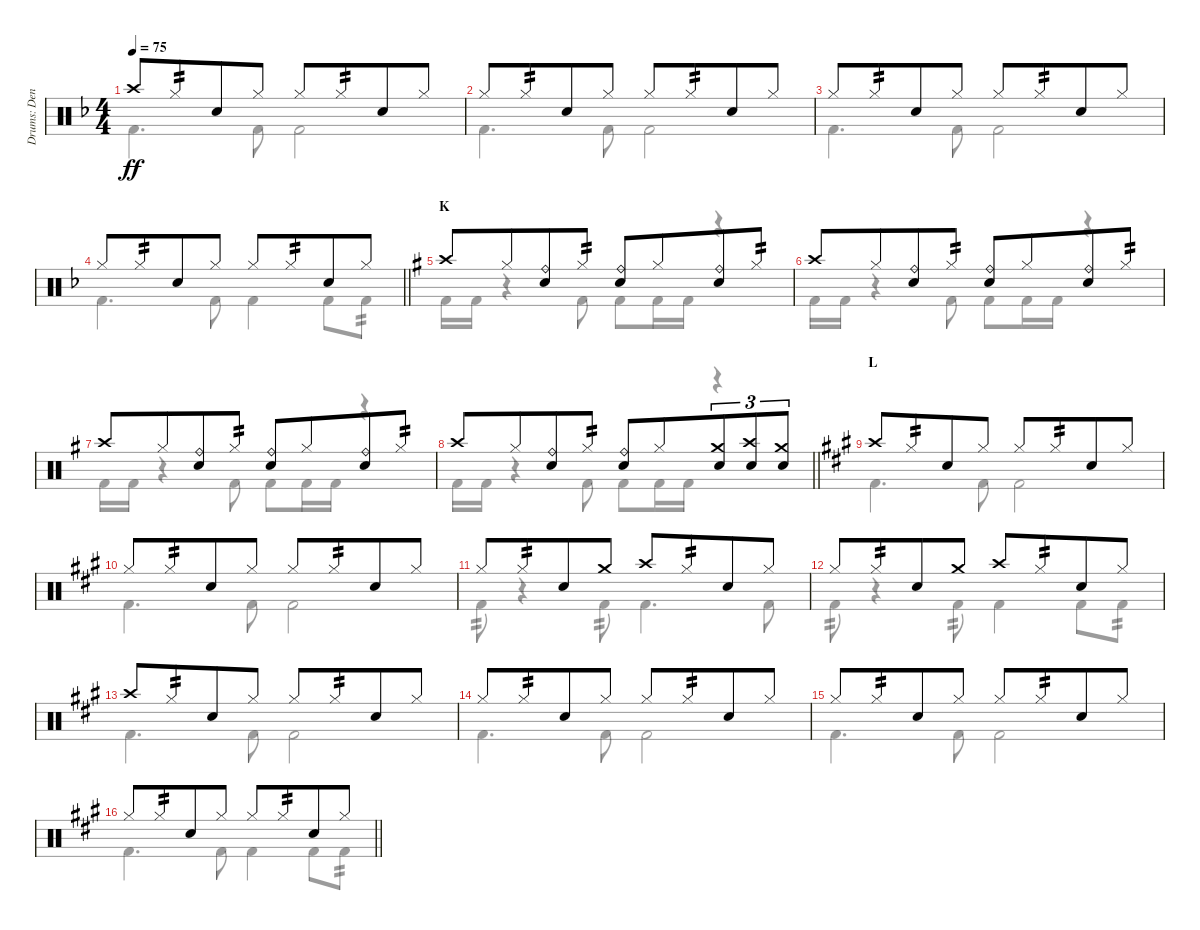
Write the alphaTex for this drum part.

\track ("Drums: Denny" "Drums: Den") {instrument percussion}
\staff {score}
\articulation defaults
\voice
\ts (4 4)
\tempo 75
\clef neutral
\ks f "Crash high (hit)".8{dy ff} "Hi-Hat (closed)".8{tp 2 beam merge} "Snare (hit) 2".8 "Hi-Hat (closed)".8 "Hi-Hat (closed)".8 "Hi-Hat (closed)".8{tp 2 beam merge} "Snare (hit) 2".8 "Hi-Hat (closed)".8
|
"Hi-Hat (closed)".8 "Hi-Hat (closed)".8{tp 2 beam merge} "Snare (hit) 2".8 "Hi-Hat (closed)".8 "Hi-Hat (closed)".8 "Hi-Hat (closed)".8{tp 2 beam merge} "Snare (hit) 2".8 "Hi-Hat (closed)".8 |
"Hi-Hat (closed)".8 "Hi-Hat (closed)".8{tp 2 beam merge} "Snare (hit) 2".8 "Hi-Hat (closed)".8 "Hi-Hat (closed)".8 "Hi-Hat (closed)".8{tp 2 beam merge} "Snare (hit) 2".8 "Hi-Hat (closed)".8 |
\barLineRight lightlight "Hi-Hat (closed)".8 "Hi-Hat (closed)".8{tp 2 beam merge} "Snare (hit) 2".8 "Hi-Hat (closed)".8 "Hi-Hat (closed)".8 "Hi-Hat (closed)".8{tp 2 beam merge} "Snare (hit) 2".8 "Hi-Hat (closed)".8
|
\section ("" "K")
\ks g "Crash high (hit)".8 "Hi-Hat (closed)".8{beam merge}
("Ride (bell)" "Snare (hit) 2").8 "Hi-Hat (closed)".8{tp 2} ("Ride (bell)" "Snare (hit) 2").8 "Hi-Hat (closed)".8{beam merge} ("Ride (bell)" "Snare (hit) 2").8 "Hi-Hat (closed)".8{tp 2} |
"Crash high (hit)".8 "Hi-Hat (closed)".8{beam merge} ("Ride (bell)" "Snare (hit) 2").8 "Hi-Hat (closed)".8{tp 2} ("Ride (bell)" "Snare (hit) 2").8 "Hi-Hat (closed)".8{beam merge} ("Ride (bell)" "Snare (hit) 2").8 "Hi-Hat (closed)".8{tp 2} |
"Crash high (hit)".8 "Hi-Hat (closed)".8{beam merge} ("Ride (bell)" "Snare (hit) 2").8 "Hi-Hat (closed)".8{tp 2} ("Ride (bell)" "Snare (hit) 2").8 "Hi-Hat (closed)".8{beam merge} ("Ride (bell)" "Snare (hit) 2").8 "Hi-Hat (closed)".8{tp 2} |
\barLineRight lightlight "Crash high (hit)".8 "Hi-Hat (closed)".8{beam merge}
("Ride (bell)" "Snare (hit) 2").8 "Hi-Hat (closed)".8{tp 2} ("Ride (bell)" "Snare (hit) 2").8 "Hi-Hat (closed)".8{beam merge} ("Crash medium (hit)" "Snare (hit) 2").8{tu (3 2)} ("Crash high (hit)" "Snare (hit) 2").8{tu (3 2)} ("Crash medium (hit)" "Snare (hit) 2").8{tu (3 2)} |
\section ("" "L")
\ks a "Crash high (hit)".8 "Hi-Hat (closed)".8{tp 2 beam merge} "Snare (hit) 2".8 "Hi-Hat (closed)".8 "Hi-Hat (closed)".8 "Hi-Hat (closed)".8{tp 2 beam merge} "Snare (hit) 2".8 "Hi-Hat (closed)".8
|
"Hi-Hat (closed)".8 "Hi-Hat (closed)".8{tp 2 beam merge} "Snare (hit) 2".8 "Hi-Hat (closed)".8 "Hi-Hat (closed)".8 "Hi-Hat (closed)".8{tp 2 beam merge} "Snare (hit) 2".8 "Hi-Hat (closed)".8 |
"Hi-Hat (closed)".8 "Hi-Hat (closed)".8{tp 2 beam merge} "Snare (hit) 2".8 "Crash medium (hit)".8 "Crash high (hit)".8 "Hi-Hat (closed)".8{tp 2 beam merge} "Snare (hit) 2".8 "Hi-Hat (closed)".8 |
"Hi-Hat (closed)".8 "Hi-Hat (closed)".8{tp 2 beam merge} "Snare (hit) 2".8 "Crash medium (hit)".8 "Crash high (hit)".8 "Hi-Hat (closed)".8{tp 2 beam merge} "Snare (hit) 2".8 "Hi-Hat (closed)".8 |
"Crash high (hit)".8 "Hi-Hat (closed)".8{tp 2 beam merge} "Snare (hit) 2".8 "Hi-Hat (closed)".8 "Hi-Hat (closed)".8 "Hi-Hat (closed)".8{tp 2 beam merge} "Snare (hit) 2".8 "Hi-Hat (closed)".8 |
"Hi-Hat (closed)".8 "Hi-Hat (closed)".8{tp 2 beam merge} "Snare (hit) 2".8 "Hi-Hat (closed)".8 "Hi-Hat (closed)".8 "Hi-Hat (closed)".8{tp 2 beam merge} "Snare (hit) 2".8 "Hi-Hat (closed)".8 |
"Hi-Hat (closed)".8 "Hi-Hat (closed)".8{tp 2 beam merge} "Snare (hit) 2".8 "Hi-Hat (closed)".8 "Hi-Hat (closed)".8 "Hi-Hat (closed)".8{tp 2 beam merge} "Snare (hit) 2".8 "Hi-Hat (closed)".8 |
\barLineRight lightlight "Hi-Hat (closed)".8 "Hi-Hat (closed)".8{tp 2 beam merge} "Snare (hit) 2".8 "Hi-Hat (closed)".8 "Hi-Hat (closed)".8 "Hi-Hat (closed)".8{tp 2 beam merge} "Snare (hit) 2".8 "Hi-Hat (closed)".8
\voice
\clef neutral
\ottava regular
\simile none
\ks f "Kick (hit) 2".4{d dy ff} "Kick (hit) 2".8 "Kick (hit) 2".2
|
"Kick (hit) 2".4{d} "Kick (hit) 2".8 "Kick (hit) 2".2 |
"Kick (hit) 2".4{d} "Kick (hit) 2".8 "Kick (hit) 2".2 |
\barLineRight lightlight "Kick (hit) 2".4{d} "Kick (hit) 2".8 "Kick (hit) 2".4 "Kick (hit) 2".8 "Kick (hit) 2".8{tp 2}
|
\ks g "Kick (hit) 2".16 "Kick (hit) 2".16
r.4 "Kick (hit) 2".8 "Kick (hit) 2".8 "Kick (hit) 2".16 "Kick (hit) 2".16 r.4 |
"Kick (hit) 2".16 "Kick (hit) 2".16 r.4 "Kick (hit) 2".8 "Kick (hit) 2".8 "Kick (hit) 2".16 "Kick (hit) 2".16 r.4 |
"Kick (hit) 2".16 "Kick (hit) 2".16 r.4 "Kick (hit) 2".8 "Kick (hit) 2".8 "Kick (hit) 2".16 "Kick (hit) 2".16 r.4 |
\barLineRight lightlight "Kick (hit) 2".16 "Kick (hit) 2".16
r.4 "Kick (hit) 2".8 "Kick (hit) 2".8 "Kick (hit) 2".16 "Kick (hit) 2".16 r.4 |
\ks a "Kick (hit) 2".4{d} "Kick (hit) 2".8 "Kick (hit) 2".2
|
"Kick (hit) 2".4{d} "Kick (hit) 2".8 "Kick (hit) 2".2 |
"Kick (hit) 2".8{tp 2} r.4 "Kick (hit) 2".8{tp 2} "Kick (hit) 2".4{d} "Kick (hit) 2".8 |
"Kick (hit) 2".8{tp 2} r.4 "Kick (hit) 2".8{tp 2} "Kick (hit) 2".4 "Kick (hit) 2".8 "Kick (hit) 2".8{tp 2} |
"Kick (hit) 2".4{d} "Kick (hit) 2".8 "Kick (hit) 2".2 |
"Kick (hit) 2".4{d} "Kick (hit) 2".8 "Kick (hit) 2".2 |
"Kick (hit) 2".4{d} "Kick (hit) 2".8 "Kick (hit) 2".2 |
\barLineRight lightlight "Kick (hit) 2".4{d} "Kick (hit) 2".8 "Kick (hit) 2".4 "Kick (hit) 2".8 "Kick (hit) 2".8{tp 2}
